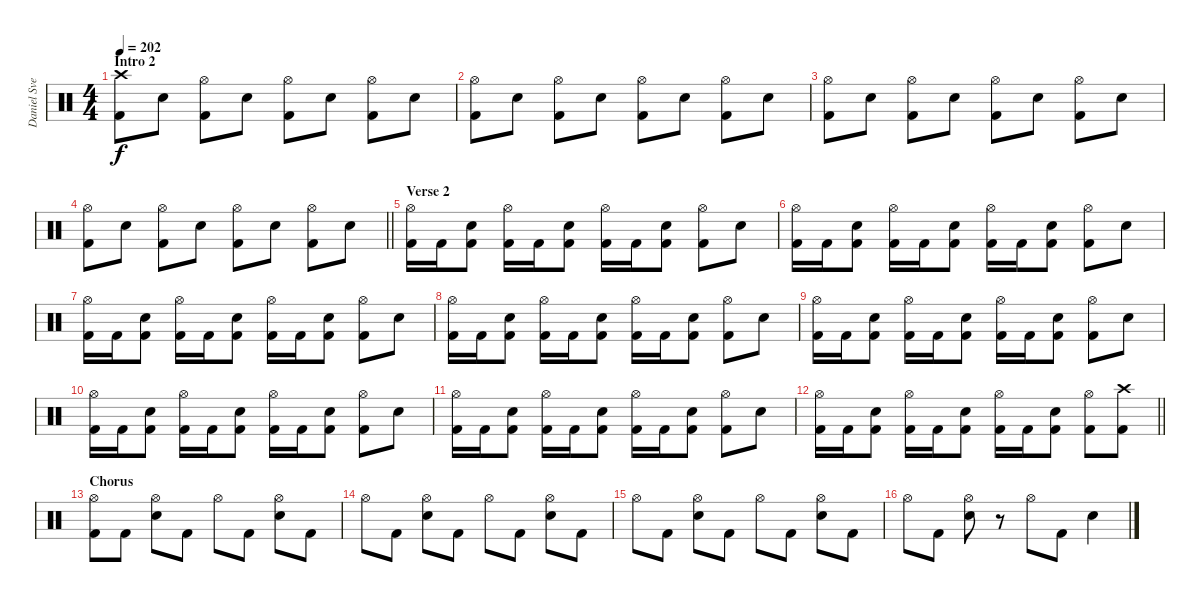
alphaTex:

\track ("Daniel Svensson" "Daniel Sve") {instrument percussion}
\staff {score}
\articulation defaults
\ts (4 4)
\section ("" "Intro 2")
\tempo 202
\clef neutral
\ks c
("Crash high (hit)" "Kick (hit) 2").8{dy f} "Electric Snare (hit)".8 ("Hi-Hat (open)" "Kick (hit) 2").8 "Electric Snare (hit)".8 ("Hi-Hat (open)" "Kick (hit) 2").8 "Electric Snare (hit)".8 ("Hi-Hat (open)" "Kick (hit) 2").8 "Electric Snare (hit)".8 |
("Hi-Hat (open)" "Kick (hit) 2").8 "Electric Snare (hit)".8 ("Hi-Hat (open)" "Kick (hit) 2").8 "Electric Snare (hit)".8 ("Hi-Hat (open)" "Kick (hit) 2").8 "Electric Snare (hit)".8 ("Hi-Hat (open)" "Kick (hit) 2").8 "Electric Snare (hit)".8 |
("Hi-Hat (open)" "Kick (hit) 2").8 "Electric Snare (hit)".8 ("Hi-Hat (open)" "Kick (hit) 2").8 "Electric Snare (hit)".8 ("Hi-Hat (open)" "Kick (hit) 2").8 "Electric Snare (hit)".8 ("Hi-Hat (open)" "Kick (hit) 2").8 "Electric Snare (hit)".8 |
\barLineRight lightlight
("Hi-Hat (open)" "Kick (hit) 2").8 "Electric Snare (hit)".8 ("Hi-Hat (open)" "Kick (hit) 2").8 "Electric Snare (hit)".8 ("Hi-Hat (open)" "Kick (hit) 2").8 "Electric Snare (hit)".8 ("Hi-Hat (open)" "Kick (hit) 2").8 "Electric Snare (hit)".8 |
\section ("" "Verse 2")
("Hi-Hat (open)" "Kick (hit) 2").16 "Kick (hit) 2".16 ("Electric Snare (hit)" "Kick (hit) 2").8 ("Hi-Hat (open)" "Kick (hit) 2").16 "Kick (hit) 2".16 ("Electric Snare (hit)" "Kick (hit) 2").8 ("Hi-Hat (open)" "Kick (hit) 2").16 "Kick (hit) 2".16 ("Electric Snare (hit)" "Kick (hit) 2").8 ("Hi-Hat (open)" "Kick (hit) 2").8 "Electric Snare (hit)".8 |
("Hi-Hat (open)" "Kick (hit) 2").16 "Kick (hit) 2".16 ("Electric Snare (hit)" "Kick (hit) 2").8 ("Hi-Hat (open)" "Kick (hit) 2").16 "Kick (hit) 2".16 ("Electric Snare (hit)" "Kick (hit) 2").8 ("Hi-Hat (open)" "Kick (hit) 2").16 "Kick (hit) 2".16 ("Electric Snare (hit)" "Kick (hit) 2").8 ("Hi-Hat (open)" "Kick (hit) 2").8 "Electric Snare (hit)".8 |
("Hi-Hat (open)" "Kick (hit) 2").16 "Kick (hit) 2".16 ("Electric Snare (hit)" "Kick (hit) 2").8 ("Hi-Hat (open)" "Kick (hit) 2").16 "Kick (hit) 2".16 ("Electric Snare (hit)" "Kick (hit) 2").8 ("Hi-Hat (open)" "Kick (hit) 2").16 "Kick (hit) 2".16 ("Electric Snare (hit)" "Kick (hit) 2").8 ("Hi-Hat (open)" "Kick (hit) 2").8 "Electric Snare (hit)".8 |
("Hi-Hat (open)" "Kick (hit) 2").16 "Kick (hit) 2".16 ("Electric Snare (hit)" "Kick (hit) 2").8 ("Hi-Hat (open)" "Kick (hit) 2").16 "Kick (hit) 2".16 ("Electric Snare (hit)" "Kick (hit) 2").8 ("Hi-Hat (open)" "Kick (hit) 2").16 "Kick (hit) 2".16 ("Electric Snare (hit)" "Kick (hit) 2").8 ("Hi-Hat (open)" "Kick (hit) 2").8 "Electric Snare (hit)".8 |
("Hi-Hat (open)" "Kick (hit) 2").16 "Kick (hit) 2".16 ("Electric Snare (hit)" "Kick (hit) 2").8 ("Hi-Hat (open)" "Kick (hit) 2").16 "Kick (hit) 2".16 ("Electric Snare (hit)" "Kick (hit) 2").8 ("Hi-Hat (open)" "Kick (hit) 2").16 "Kick (hit) 2".16 ("Electric Snare (hit)" "Kick (hit) 2").8 ("Hi-Hat (open)" "Kick (hit) 2").8 "Electric Snare (hit)".8 |
("Hi-Hat (open)" "Kick (hit) 2").16 "Kick (hit) 2".16 ("Electric Snare (hit)" "Kick (hit) 2").8 ("Hi-Hat (open)" "Kick (hit) 2").16 "Kick (hit) 2".16 ("Electric Snare (hit)" "Kick (hit) 2").8 ("Hi-Hat (open)" "Kick (hit) 2").16 "Kick (hit) 2".16 ("Electric Snare (hit)" "Kick (hit) 2").8 ("Hi-Hat (open)" "Kick (hit) 2").8 "Electric Snare (hit)".8 |
("Hi-Hat (open)" "Kick (hit) 2").16 "Kick (hit) 2".16 ("Electric Snare (hit)" "Kick (hit) 2").8 ("Hi-Hat (open)" "Kick (hit) 2").16 "Kick (hit) 2".16 ("Electric Snare (hit)" "Kick (hit) 2").8 ("Hi-Hat (open)" "Kick (hit) 2").16 "Kick (hit) 2".16 ("Electric Snare (hit)" "Kick (hit) 2").8 ("Hi-Hat (open)" "Kick (hit) 2").8 "Electric Snare (hit)".8 |
\barLineRight lightlight
("Hi-Hat (open)" "Kick (hit) 2").16 "Kick (hit) 2".16 ("Electric Snare (hit)" "Kick (hit) 2").8 ("Hi-Hat (open)" "Kick (hit) 2").16 "Kick (hit) 2".16 ("Electric Snare (hit)" "Kick (hit) 2").8 ("Hi-Hat (open)" "Kick (hit) 2").16 "Kick (hit) 2".16 ("Electric Snare (hit)" "Kick (hit) 2").8 ("Hi-Hat (open)" "Kick (hit) 2").8 ("Crash high (hit)" "Kick (hit) 2").8 |
\section ("" "Chorus")
("Hi-Hat (open)" "Kick (hit) 2").8 "Kick (hit) 2".8 ("Hi-Hat (open)" "Electric Snare (hit)").8 "Kick (hit) 2".8 "Hi-Hat (open)".8 "Kick (hit) 2".8 ("Hi-Hat (open)" "Electric Snare (hit)").8 "Kick (hit) 2".8 |
"Hi-Hat (open)".8 "Kick (hit) 2".8 ("Hi-Hat (open)" "Electric Snare (hit)").8 "Kick (hit) 2".8 "Hi-Hat (open)".8 "Kick (hit) 2".8 ("Hi-Hat (open)" "Electric Snare (hit)").8 "Kick (hit) 2".8 |
"Hi-Hat (open)".8 "Kick (hit) 2".8 ("Hi-Hat (open)" "Electric Snare (hit)").8 "Kick (hit) 2".8 "Hi-Hat (open)".8 "Kick (hit) 2".8 ("Hi-Hat (open)" "Electric Snare (hit)").8 "Kick (hit) 2".8 |
"Hi-Hat (open)".8 "Kick (hit) 2".8 ("Hi-Hat (open)" "Electric Snare (hit)").8 r.8 "Hi-Hat (open)".8 "Kick (hit) 2".8 "Electric Snare (hit)".4
